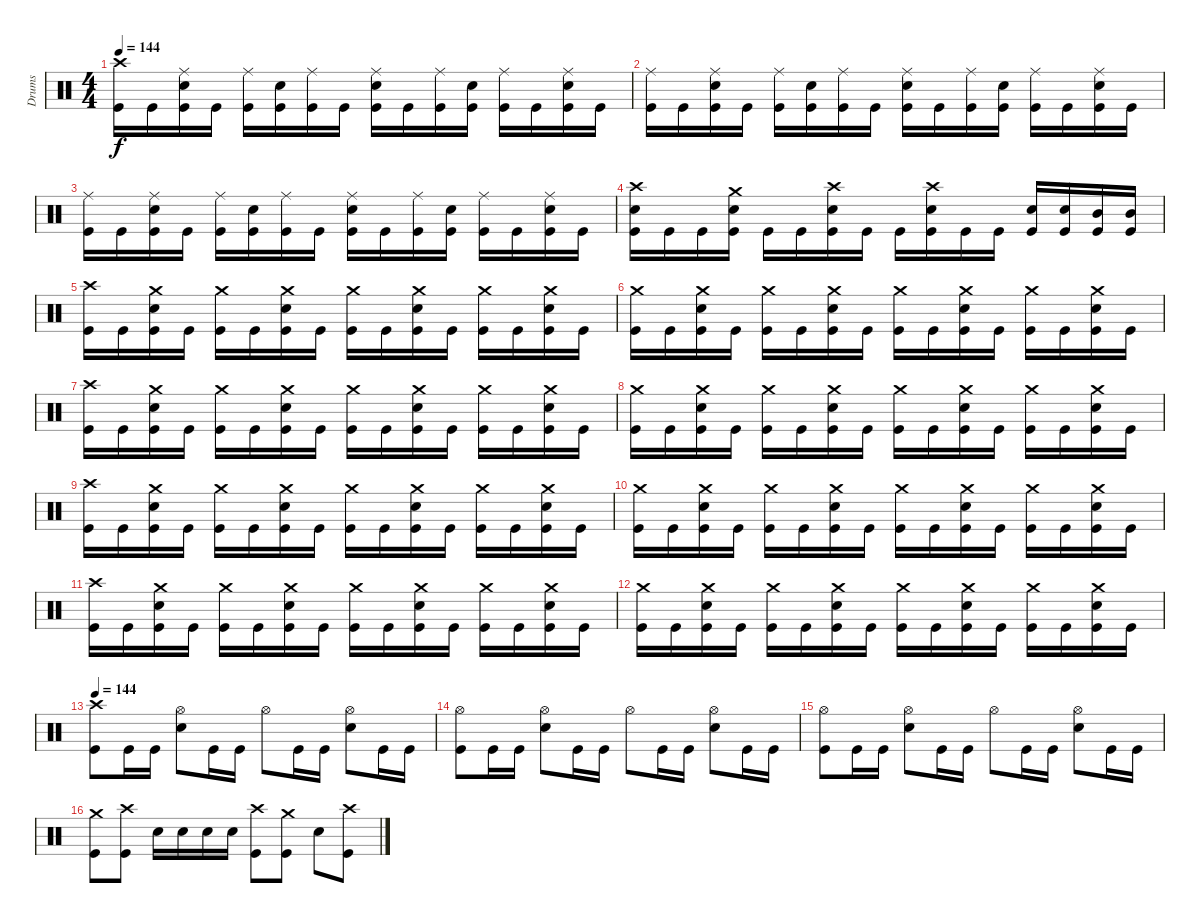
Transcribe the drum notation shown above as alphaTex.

\track ("Drums" "Drums") {instrument percussion}
\staff {score}
\articulation defaults
\ts (4 4)
\tempo 144
\clef neutral
\ks c
("Crash high (hit)" "Kick (hit)").16{dy f} "Kick (hit)".16 ("Ride (middle)" "Electric Snare (hit)" "Kick (hit)").16 "Kick (hit)".16 ("Ride (middle)" "Kick (hit)").16 ("Electric Snare (hit)" "Kick (hit)").16 ("Ride (middle)" "Kick (hit)").16 "Kick (hit)".16 ("Ride (middle)" "Electric Snare (hit)" "Kick (hit)").16 "Kick (hit)".16 ("Ride (middle)" "Kick (hit)").16 ("Electric Snare (hit)" "Kick (hit)").16 ("Ride (middle)" "Kick (hit)").16 "Kick (hit)".16 ("Ride (middle)" "Electric Snare (hit)" "Kick (hit)").16 "Kick (hit)".16 |
("Ride (middle)" "Kick (hit)").16 "Kick (hit)".16 ("Ride (middle)" "Electric Snare (hit)" "Kick (hit)").16 "Kick (hit)".16 ("Ride (middle)" "Kick (hit)").16 ("Electric Snare (hit)" "Kick (hit)").16 ("Ride (middle)" "Kick (hit)").16 "Kick (hit)".16 ("Ride (middle)" "Electric Snare (hit)" "Kick (hit)").16 "Kick (hit)".16 ("Ride (middle)" "Kick (hit)").16 ("Electric Snare (hit)" "Kick (hit)").16 ("Ride (middle)" "Kick (hit)").16 "Kick (hit)".16 ("Ride (middle)" "Electric Snare (hit)" "Kick (hit)").16 "Kick (hit)".16 |
("Ride (middle)" "Kick (hit)").16 "Kick (hit)".16 ("Ride (middle)" "Electric Snare (hit)" "Kick (hit)").16 "Kick (hit)".16 ("Ride (middle)" "Kick (hit)").16 ("Electric Snare (hit)" "Kick (hit)").16 ("Ride (middle)" "Kick (hit)").16 "Kick (hit)".16 ("Ride (middle)" "Electric Snare (hit)" "Kick (hit)").16 "Kick (hit)".16 ("Ride (middle)" "Kick (hit)").16 ("Electric Snare (hit)" "Kick (hit)").16 ("Ride (middle)" "Kick (hit)").16 "Kick (hit)".16 ("Ride (middle)" "Electric Snare (hit)" "Kick (hit)").16 "Kick (hit)".16 |
("Crash high (hit)" "Electric Snare (hit)" "Kick (hit)").16 "Kick (hit)".16 "Kick (hit)".16 ("Crash medium (hit)" "Electric Snare (hit)" "Kick (hit)").16 "Kick (hit)".16 "Kick (hit)".16 ("Crash high (hit)" "Electric Snare (hit)" "Kick (hit)").16 "Kick (hit)".16 "Kick (hit)".16 ("Crash high (hit)" "Electric Snare (hit)" "Kick (hit)").16 "Kick (hit)".16 "Kick (hit)".16 ("Electric Snare (hit)" "Kick (hit)").16 ("Electric Snare (hit)" "Kick (hit)").16 ("Mid Tom (hit)" "Kick (hit)").16 ("Mid Tom (hit)" "Kick (hit)").16 |
("Crash high (hit)" "Kick (hit)").16 "Kick (hit)".16 ("Crash medium (hit)" "Electric Snare (hit)" "Kick (hit)").16 "Kick (hit)".16 ("Crash medium (hit)" "Kick (hit)").16 "Kick (hit)".16 ("Crash medium (hit)" "Electric Snare (hit)" "Kick (hit)").16 "Kick (hit)".16 ("Crash medium (hit)" "Kick (hit)").16 "Kick (hit)".16 ("Crash medium (hit)" "Electric Snare (hit)" "Kick (hit)").16 "Kick (hit)".16 ("Crash medium (hit)" "Kick (hit)").16 "Kick (hit)".16 ("Crash medium (hit)" "Electric Snare (hit)" "Kick (hit)").16 "Kick (hit)".16 |
("Crash medium (hit)" "Kick (hit)").16 "Kick (hit)".16 ("Crash medium (hit)" "Electric Snare (hit)" "Kick (hit)").16 "Kick (hit)".16 ("Crash medium (hit)" "Kick (hit)").16 "Kick (hit)".16 ("Crash medium (hit)" "Electric Snare (hit)" "Kick (hit)").16 "Kick (hit)".16 ("Crash medium (hit)" "Kick (hit)").16 "Kick (hit)".16 ("Crash medium (hit)" "Electric Snare (hit)" "Kick (hit)").16 "Kick (hit)".16 ("Crash medium (hit)" "Kick (hit)").16 "Kick (hit)".16 ("Crash medium (hit)" "Electric Snare (hit)" "Kick (hit)").16 "Kick (hit)".16 |
("Crash high (hit)" "Kick (hit)").16 "Kick (hit)".16 ("Crash medium (hit)" "Electric Snare (hit)" "Kick (hit)").16 "Kick (hit)".16 ("Crash medium (hit)" "Kick (hit)").16 "Kick (hit)".16 ("Crash medium (hit)" "Electric Snare (hit)" "Kick (hit)").16 "Kick (hit)".16 ("Crash medium (hit)" "Kick (hit)").16 "Kick (hit)".16 ("Crash medium (hit)" "Electric Snare (hit)" "Kick (hit)").16 "Kick (hit)".16 ("Crash medium (hit)" "Kick (hit)").16 "Kick (hit)".16 ("Crash medium (hit)" "Electric Snare (hit)" "Kick (hit)").16 "Kick (hit)".16 |
("Crash medium (hit)" "Kick (hit)").16 "Kick (hit)".16 ("Crash medium (hit)" "Electric Snare (hit)" "Kick (hit)").16 "Kick (hit)".16 ("Crash medium (hit)" "Kick (hit)").16 "Kick (hit)".16 ("Crash medium (hit)" "Electric Snare (hit)" "Kick (hit)").16 "Kick (hit)".16 ("Crash medium (hit)" "Kick (hit)").16 "Kick (hit)".16 ("Crash medium (hit)" "Electric Snare (hit)" "Kick (hit)").16 "Kick (hit)".16 ("Crash medium (hit)" "Kick (hit)").16 "Kick (hit)".16 ("Crash medium (hit)" "Electric Snare (hit)" "Kick (hit)").16 "Kick (hit)".16 |
("Crash high (hit)" "Kick (hit)").16 "Kick (hit)".16 ("Crash medium (hit)" "Electric Snare (hit)" "Kick (hit)").16 "Kick (hit)".16 ("Crash medium (hit)" "Kick (hit)").16 "Kick (hit)".16 ("Crash medium (hit)" "Electric Snare (hit)" "Kick (hit)").16 "Kick (hit)".16 ("Crash medium (hit)" "Kick (hit)").16 "Kick (hit)".16 ("Crash medium (hit)" "Electric Snare (hit)" "Kick (hit)").16 "Kick (hit)".16 ("Crash medium (hit)" "Kick (hit)").16 "Kick (hit)".16 ("Crash medium (hit)" "Electric Snare (hit)" "Kick (hit)").16 "Kick (hit)".16 |
("Crash medium (hit)" "Kick (hit)").16 "Kick (hit)".16 ("Crash medium (hit)" "Electric Snare (hit)" "Kick (hit)").16 "Kick (hit)".16 ("Crash medium (hit)" "Kick (hit)").16 "Kick (hit)".16 ("Crash medium (hit)" "Electric Snare (hit)" "Kick (hit)").16 "Kick (hit)".16 ("Crash medium (hit)" "Kick (hit)").16 "Kick (hit)".16 ("Crash medium (hit)" "Electric Snare (hit)" "Kick (hit)").16 "Kick (hit)".16 ("Crash medium (hit)" "Kick (hit)").16 "Kick (hit)".16 ("Crash medium (hit)" "Electric Snare (hit)" "Kick (hit)").16 "Kick (hit)".16 |
("Crash high (hit)" "Kick (hit)").16 "Kick (hit)".16 ("Crash medium (hit)" "Electric Snare (hit)" "Kick (hit)").16 "Kick (hit)".16 ("Crash medium (hit)" "Kick (hit)").16 "Kick (hit)".16 ("Crash medium (hit)" "Electric Snare (hit)" "Kick (hit)").16 "Kick (hit)".16 ("Crash medium (hit)" "Kick (hit)").16 "Kick (hit)".16 ("Crash medium (hit)" "Electric Snare (hit)" "Kick (hit)").16 "Kick (hit)".16 ("Crash medium (hit)" "Kick (hit)").16 "Kick (hit)".16 ("Crash medium (hit)" "Electric Snare (hit)" "Kick (hit)").16 "Kick (hit)".16 |
("Crash medium (hit)" "Kick (hit)").16 "Kick (hit)".16 ("Crash medium (hit)" "Electric Snare (hit)" "Kick (hit)").16 "Kick (hit)".16 ("Crash medium (hit)" "Kick (hit)").16 "Kick (hit)".16 ("Crash medium (hit)" "Electric Snare (hit)" "Kick (hit)").16 "Kick (hit)".16 ("Crash medium (hit)" "Kick (hit)").16 "Kick (hit)".16 ("Crash medium (hit)" "Electric Snare (hit)" "Kick (hit)").16 "Kick (hit)".16 ("Crash medium (hit)" "Kick (hit)").16 "Kick (hit)".16 ("Crash medium (hit)" "Electric Snare (hit)" "Kick (hit)").16 "Kick (hit)".16 |
\tempo 144
("Crash high (hit)" "Kick (hit)").8 "Kick (hit)".16 "Kick (hit)".16 ("Hi-Hat (open)" "Electric Snare (hit)").8 "Kick (hit)".16 "Kick (hit)".16 "Hi-Hat (open)".8 "Kick (hit)".16 "Kick (hit)".16 ("Hi-Hat (open)" "Electric Snare (hit)").8 "Kick (hit)".16 "Kick (hit)".16 |
("Hi-Hat (open)" "Kick (hit)").8 "Kick (hit)".16 "Kick (hit)".16 ("Hi-Hat (open)" "Electric Snare (hit)").8 "Kick (hit)".16 "Kick (hit)".16 "Hi-Hat (open)".8 "Kick (hit)".16 "Kick (hit)".16 ("Hi-Hat (open)" "Electric Snare (hit)").8 "Kick (hit)".16 "Kick (hit)".16 |
("Hi-Hat (open)" "Kick (hit)").8 "Kick (hit)".16 "Kick (hit)".16 ("Hi-Hat (open)" "Electric Snare (hit)").8 "Kick (hit)".16 "Kick (hit)".16 "Hi-Hat (open)".8 "Kick (hit)".16 "Kick (hit)".16 ("Hi-Hat (open)" "Electric Snare (hit)").8 "Kick (hit)".16 "Kick (hit)".16 |
("Crash medium (hit)" "Kick (hit)").8 ("Crash high (hit)" "Kick (hit)").8 "Electric Snare (hit)".16 "Electric Snare (hit)".16 "Electric Snare (hit)".16 "Electric Snare (hit)".16 ("Crash high (hit)" "Kick (hit)").8 ("Crash medium (hit)" "Kick (hit)").8 "Electric Snare (hit)".8 ("Crash high (hit)" "Kick (hit)").8
